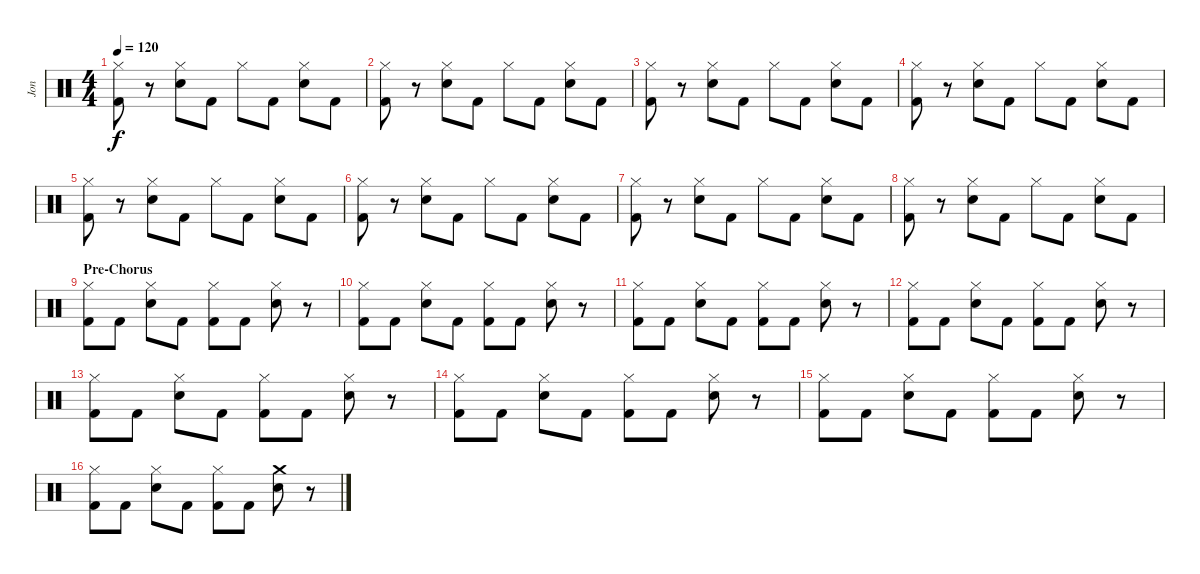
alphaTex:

\track ("Jon" "Jon") {instrument percussion}
\staff {score}
\articulation defaults
\ts (4 4)
\tempo 120
\clef neutral
\ks c
("Hi-Hat (closed)" "Kick (hit) 2").8{dy f} r.8 ("Hi-Hat (closed)" "Electric Snare (hit)").8 "Kick (hit) 2".8 "Hi-Hat (closed)".8 "Kick (hit) 2".8 ("Hi-Hat (closed)" "Electric Snare (hit)").8 "Kick (hit) 2".8 |
("Hi-Hat (closed)" "Kick (hit) 2").8 r.8 ("Hi-Hat (closed)" "Electric Snare (hit)").8 "Kick (hit) 2".8 "Hi-Hat (closed)".8 "Kick (hit) 2".8 ("Hi-Hat (closed)" "Electric Snare (hit)").8 "Kick (hit) 2".8 |
("Hi-Hat (closed)" "Kick (hit) 2").8 r.8 ("Hi-Hat (closed)" "Electric Snare (hit)").8 "Kick (hit) 2".8 "Hi-Hat (closed)".8 "Kick (hit) 2".8 ("Hi-Hat (closed)" "Electric Snare (hit)").8 "Kick (hit) 2".8 |
("Hi-Hat (closed)" "Kick (hit) 2").8 r.8 ("Hi-Hat (closed)" "Electric Snare (hit)").8 "Kick (hit) 2".8 "Hi-Hat (closed)".8 "Kick (hit) 2".8 ("Hi-Hat (closed)" "Electric Snare (hit)").8 "Kick (hit) 2".8 |
("Hi-Hat (closed)" "Kick (hit) 2").8 r.8 ("Hi-Hat (closed)" "Electric Snare (hit)").8 "Kick (hit) 2".8 "Hi-Hat (closed)".8 "Kick (hit) 2".8 ("Hi-Hat (closed)" "Electric Snare (hit)").8 "Kick (hit) 2".8 |
("Hi-Hat (closed)" "Kick (hit) 2").8 r.8 ("Hi-Hat (closed)" "Electric Snare (hit)").8 "Kick (hit) 2".8 "Hi-Hat (closed)".8 "Kick (hit) 2".8 ("Hi-Hat (closed)" "Electric Snare (hit)").8 "Kick (hit) 2".8 |
("Hi-Hat (closed)" "Kick (hit) 2").8 r.8 ("Hi-Hat (closed)" "Electric Snare (hit)").8 "Kick (hit) 2".8 "Hi-Hat (closed)".8 "Kick (hit) 2".8 ("Hi-Hat (closed)" "Electric Snare (hit)").8 "Kick (hit) 2".8 |
("Hi-Hat (closed)" "Kick (hit) 2").8 r.8 ("Hi-Hat (closed)" "Electric Snare (hit)").8 "Kick (hit) 2".8 "Hi-Hat (closed)".8 "Kick (hit) 2".8 ("Hi-Hat (closed)" "Electric Snare (hit)").8 "Kick (hit) 2".8 |
\section ("" "Pre-Chorus")
("Hi-Hat (closed)" "Kick (hit) 2").8 "Kick (hit) 2".8 ("Hi-Hat (closed)" "Electric Snare (hit)").8 "Kick (hit) 2".8 ("Hi-Hat (closed)" "Kick (hit) 2").8 "Kick (hit) 2".8 ("Hi-Hat (closed)" "Electric Snare (hit)").8 r.8 |
("Hi-Hat (closed)" "Kick (hit) 2").8 "Kick (hit) 2".8 ("Hi-Hat (closed)" "Electric Snare (hit)").8 "Kick (hit) 2".8 ("Hi-Hat (closed)" "Kick (hit) 2").8 "Kick (hit) 2".8 ("Hi-Hat (closed)" "Electric Snare (hit)").8 r.8 |
("Hi-Hat (closed)" "Kick (hit) 2").8 "Kick (hit) 2".8 ("Hi-Hat (closed)" "Electric Snare (hit)").8 "Kick (hit) 2".8 ("Hi-Hat (closed)" "Kick (hit) 2").8 "Kick (hit) 2".8 ("Hi-Hat (closed)" "Electric Snare (hit)").8 r.8 |
("Hi-Hat (closed)" "Kick (hit) 2").8 "Kick (hit) 2".8 ("Hi-Hat (closed)" "Electric Snare (hit)").8 "Kick (hit) 2".8 ("Hi-Hat (closed)" "Kick (hit) 2").8 "Kick (hit) 2".8 ("Hi-Hat (closed)" "Electric Snare (hit)").8 r.8 |
("Hi-Hat (closed)" "Kick (hit) 2").8 "Kick (hit) 2".8 ("Hi-Hat (closed)" "Electric Snare (hit)").8 "Kick (hit) 2".8 ("Hi-Hat (closed)" "Kick (hit) 2").8 "Kick (hit) 2".8 ("Hi-Hat (closed)" "Electric Snare (hit)").8 r.8 |
("Hi-Hat (closed)" "Kick (hit) 2").8 "Kick (hit) 2".8 ("Hi-Hat (closed)" "Electric Snare (hit)").8 "Kick (hit) 2".8 ("Hi-Hat (closed)" "Kick (hit) 2").8 "Kick (hit) 2".8 ("Hi-Hat (closed)" "Electric Snare (hit)").8 r.8 |
("Hi-Hat (closed)" "Kick (hit) 2").8 "Kick (hit) 2".8 ("Hi-Hat (closed)" "Electric Snare (hit)").8 "Kick (hit) 2".8 ("Hi-Hat (closed)" "Kick (hit) 2").8 "Kick (hit) 2".8 ("Hi-Hat (closed)" "Electric Snare (hit)").8 r.8 |
("Hi-Hat (closed)" "Kick (hit) 2").8 "Kick (hit) 2".8 ("Hi-Hat (closed)" "Electric Snare (hit)").8 "Kick (hit) 2".8 ("Hi-Hat (closed)" "Kick (hit) 2").8 "Kick (hit) 2".8 ("Crash medium (hit)" "Electric Snare (hit)").8 r.8
